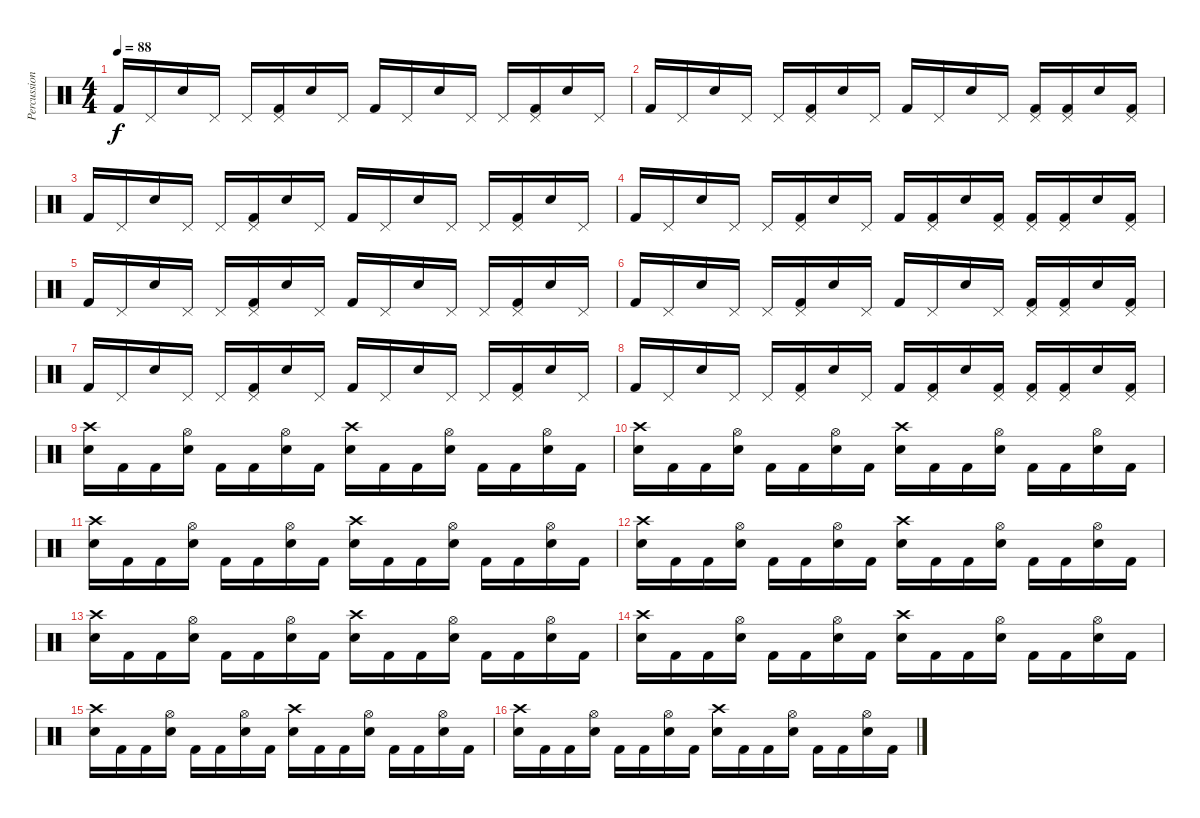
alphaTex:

\track ("Percussion" "Percussion") {instrument percussion}
\staff {score}
\articulation defaults
\ts (4 4)
\tempo 88
\clef neutral
\ks c "Kick (hit) 2".16{dy f} "Pedal Hi-Hat (hit)".16 "Snare (hit) 2".16 "Pedal Hi-Hat (hit)".16 "Pedal Hi-Hat (hit)".16
("Pedal Hi-Hat (hit)" "Kick (hit) 2").16 "Snare (hit) 2".16 "Pedal Hi-Hat (hit)".16 "Kick (hit) 2".16 "Pedal Hi-Hat (hit)".16 "Snare (hit) 2".16 "Pedal Hi-Hat (hit)".16 "Pedal Hi-Hat (hit)".16 ("Pedal Hi-Hat (hit)" "Kick (hit) 2").16 "Snare (hit) 2".16 "Pedal Hi-Hat (hit)".16 |
"Kick (hit) 2".16 "Pedal Hi-Hat (hit)".16 "Snare (hit) 2".16 "Pedal Hi-Hat (hit)".16 "Pedal Hi-Hat (hit)".16 ("Pedal Hi-Hat (hit)" "Kick (hit) 2").16 "Snare (hit) 2".16 "Pedal Hi-Hat (hit)".16 "Kick (hit) 2".16 "Pedal Hi-Hat (hit)".16 "Snare (hit) 2".16 "Pedal Hi-Hat (hit)".16 ("Pedal Hi-Hat (hit)" "Kick (hit) 2").16 ("Pedal Hi-Hat (hit)" "Kick (hit) 2").16 "Snare (hit) 2".16 ("Pedal Hi-Hat (hit)" "Kick (hit) 2").16 |
"Kick (hit) 2".16 "Pedal Hi-Hat (hit)".16 "Snare (hit) 2".16 "Pedal Hi-Hat (hit)".16 "Pedal Hi-Hat (hit)".16 ("Pedal Hi-Hat (hit)" "Kick (hit) 2").16 "Snare (hit) 2".16 "Pedal Hi-Hat (hit)".16 "Kick (hit) 2".16 "Pedal Hi-Hat (hit)".16 "Snare (hit) 2".16 "Pedal Hi-Hat (hit)".16 "Pedal Hi-Hat (hit)".16 ("Pedal Hi-Hat (hit)" "Kick (hit) 2").16 "Snare (hit) 2".16 "Pedal Hi-Hat (hit)".16 |
"Kick (hit) 2".16 "Pedal Hi-Hat (hit)".16 "Snare (hit) 2".16 "Pedal Hi-Hat (hit)".16 "Pedal Hi-Hat (hit)".16 ("Pedal Hi-Hat (hit)" "Kick (hit) 2").16 "Snare (hit) 2".16 "Pedal Hi-Hat (hit)".16 "Kick (hit) 2".16 ("Pedal Hi-Hat (hit)" "Kick (hit) 2").16 "Snare (hit) 2".16 ("Pedal Hi-Hat (hit)" "Kick (hit) 2").16 ("Pedal Hi-Hat (hit)" "Kick (hit) 2").16 ("Pedal Hi-Hat (hit)" "Kick (hit) 2").16 "Snare (hit) 2".16 ("Pedal Hi-Hat (hit)" "Kick (hit) 2").16 |
"Kick (hit) 2".16 "Pedal Hi-Hat (hit)".16 "Snare (hit) 2".16 "Pedal Hi-Hat (hit)".16 "Pedal Hi-Hat (hit)".16 ("Pedal Hi-Hat (hit)" "Kick (hit) 2").16 "Snare (hit) 2".16 "Pedal Hi-Hat (hit)".16 "Kick (hit) 2".16 "Pedal Hi-Hat (hit)".16 "Snare (hit) 2".16 "Pedal Hi-Hat (hit)".16 "Pedal Hi-Hat (hit)".16 ("Pedal Hi-Hat (hit)" "Kick (hit) 2").16 "Snare (hit) 2".16 "Pedal Hi-Hat (hit)".16 |
"Kick (hit) 2".16 "Pedal Hi-Hat (hit)".16 "Snare (hit) 2".16 "Pedal Hi-Hat (hit)".16 "Pedal Hi-Hat (hit)".16 ("Pedal Hi-Hat (hit)" "Kick (hit) 2").16 "Snare (hit) 2".16 "Pedal Hi-Hat (hit)".16 "Kick (hit) 2".16 "Pedal Hi-Hat (hit)".16 "Snare (hit) 2".16 "Pedal Hi-Hat (hit)".16 ("Pedal Hi-Hat (hit)" "Kick (hit) 2").16 ("Pedal Hi-Hat (hit)" "Kick (hit) 2").16 "Snare (hit) 2".16 ("Pedal Hi-Hat (hit)" "Kick (hit) 2").16 |
"Kick (hit) 2".16 "Pedal Hi-Hat (hit)".16 "Snare (hit) 2".16 "Pedal Hi-Hat (hit)".16 "Pedal Hi-Hat (hit)".16 ("Pedal Hi-Hat (hit)" "Kick (hit) 2").16 "Snare (hit) 2".16 "Pedal Hi-Hat (hit)".16 "Kick (hit) 2".16 "Pedal Hi-Hat (hit)".16 "Snare (hit) 2".16 "Pedal Hi-Hat (hit)".16 "Pedal Hi-Hat (hit)".16 ("Pedal Hi-Hat (hit)" "Kick (hit) 2").16 "Snare (hit) 2".16 "Pedal Hi-Hat (hit)".16 |
"Kick (hit) 2".16 "Pedal Hi-Hat (hit)".16 "Snare (hit) 2".16 "Pedal Hi-Hat (hit)".16 "Pedal Hi-Hat (hit)".16 ("Pedal Hi-Hat (hit)" "Kick (hit) 2").16 "Snare (hit) 2".16 "Pedal Hi-Hat (hit)".16 "Kick (hit) 2".16 ("Pedal Hi-Hat (hit)" "Kick (hit) 2").16 "Snare (hit) 2".16 ("Pedal Hi-Hat (hit)" "Kick (hit) 2").16 ("Pedal Hi-Hat (hit)" "Kick (hit) 2").16 ("Pedal Hi-Hat (hit)" "Kick (hit) 2").16 "Snare (hit) 2".16 ("Pedal Hi-Hat (hit)" "Kick (hit) 2").16 |
("Crash high (hit)" "Snare (hit) 2").16 "Kick (hit) 2".16 "Kick (hit) 2".16 ("Hi-Hat (open)" "Snare (hit) 2").16 "Kick (hit) 2".16 "Kick (hit) 2".16 ("Hi-Hat (open)" "Snare (hit) 2").16 "Kick (hit) 2".16 ("Crash high (hit)" "Snare (hit) 2").16 "Kick (hit) 2".16 "Kick (hit) 2".16 ("Hi-Hat (open)" "Snare (hit) 2").16 "Kick (hit) 2".16 "Kick (hit) 2".16 ("Hi-Hat (open)" "Snare (hit) 2").16 "Kick (hit) 2".16 |
("Crash high (hit)" "Snare (hit) 2").16 "Kick (hit) 2".16 "Kick (hit) 2".16 ("Hi-Hat (open)" "Snare (hit) 2").16 "Kick (hit) 2".16 "Kick (hit) 2".16 ("Hi-Hat (open)" "Snare (hit) 2").16 "Kick (hit) 2".16 ("Crash high (hit)" "Snare (hit) 2").16 "Kick (hit) 2".16 "Kick (hit) 2".16 ("Hi-Hat (open)" "Snare (hit) 2").16 "Kick (hit) 2".16 "Kick (hit) 2".16 ("Hi-Hat (open)" "Snare (hit) 2").16 "Kick (hit) 2".16 |
("Crash high (hit)" "Snare (hit) 2").16 "Kick (hit) 2".16 "Kick (hit) 2".16 ("Hi-Hat (open)" "Snare (hit) 2").16 "Kick (hit) 2".16 "Kick (hit) 2".16 ("Hi-Hat (open)" "Snare (hit) 2").16 "Kick (hit) 2".16 ("Crash high (hit)" "Snare (hit) 2").16 "Kick (hit) 2".16 "Kick (hit) 2".16 ("Hi-Hat (open)" "Snare (hit) 2").16 "Kick (hit) 2".16 "Kick (hit) 2".16 ("Hi-Hat (open)" "Snare (hit) 2").16 "Kick (hit) 2".16 |
("Crash high (hit)" "Snare (hit) 2").16 "Kick (hit) 2".16 "Kick (hit) 2".16 ("Hi-Hat (open)" "Snare (hit) 2").16 "Kick (hit) 2".16 "Kick (hit) 2".16 ("Hi-Hat (open)" "Snare (hit) 2").16 "Kick (hit) 2".16 ("Crash high (hit)" "Snare (hit) 2").16 "Kick (hit) 2".16 "Kick (hit) 2".16 ("Hi-Hat (open)" "Snare (hit) 2").16 "Kick (hit) 2".16 "Kick (hit) 2".16 ("Hi-Hat (open)" "Snare (hit) 2").16 "Kick (hit) 2".16 |
("Crash high (hit)" "Snare (hit) 2").16 "Kick (hit) 2".16 "Kick (hit) 2".16 ("Hi-Hat (open)" "Snare (hit) 2").16 "Kick (hit) 2".16 "Kick (hit) 2".16 ("Hi-Hat (open)" "Snare (hit) 2").16 "Kick (hit) 2".16 ("Crash high (hit)" "Snare (hit) 2").16 "Kick (hit) 2".16 "Kick (hit) 2".16 ("Hi-Hat (open)" "Snare (hit) 2").16 "Kick (hit) 2".16 "Kick (hit) 2".16 ("Hi-Hat (open)" "Snare (hit) 2").16 "Kick (hit) 2".16 |
("Crash high (hit)" "Snare (hit) 2").16 "Kick (hit) 2".16 "Kick (hit) 2".16 ("Hi-Hat (open)" "Snare (hit) 2").16 "Kick (hit) 2".16 "Kick (hit) 2".16 ("Hi-Hat (open)" "Snare (hit) 2").16 "Kick (hit) 2".16 ("Crash high (hit)" "Snare (hit) 2").16 "Kick (hit) 2".16 "Kick (hit) 2".16 ("Hi-Hat (open)" "Snare (hit) 2").16 "Kick (hit) 2".16 "Kick (hit) 2".16 ("Hi-Hat (open)" "Snare (hit) 2").16 "Kick (hit) 2".16 |
("Crash high (hit)" "Snare (hit) 2").16 "Kick (hit) 2".16 "Kick (hit) 2".16 ("Hi-Hat (open)" "Snare (hit) 2").16 "Kick (hit) 2".16 "Kick (hit) 2".16 ("Hi-Hat (open)" "Snare (hit) 2").16 "Kick (hit) 2".16 ("Crash high (hit)" "Snare (hit) 2").16 "Kick (hit) 2".16 "Kick (hit) 2".16 ("Hi-Hat (open)" "Snare (hit) 2").16 "Kick (hit) 2".16 "Kick (hit) 2".16 ("Hi-Hat (open)" "Snare (hit) 2").16 "Kick (hit) 2".16 |
("Crash high (hit)" "Snare (hit) 2").16 "Kick (hit) 2".16 "Kick (hit) 2".16 ("Hi-Hat (open)" "Snare (hit) 2").16 "Kick (hit) 2".16 "Kick (hit) 2".16 ("Hi-Hat (open)" "Snare (hit) 2").16 "Kick (hit) 2".16 ("Crash high (hit)" "Snare (hit) 2").16 "Kick (hit) 2".16 "Kick (hit) 2".16 ("Hi-Hat (open)" "Snare (hit) 2").16 "Kick (hit) 2".16 "Kick (hit) 2".16 ("Hi-Hat (open)" "Snare (hit) 2").16 "Kick (hit) 2".16
